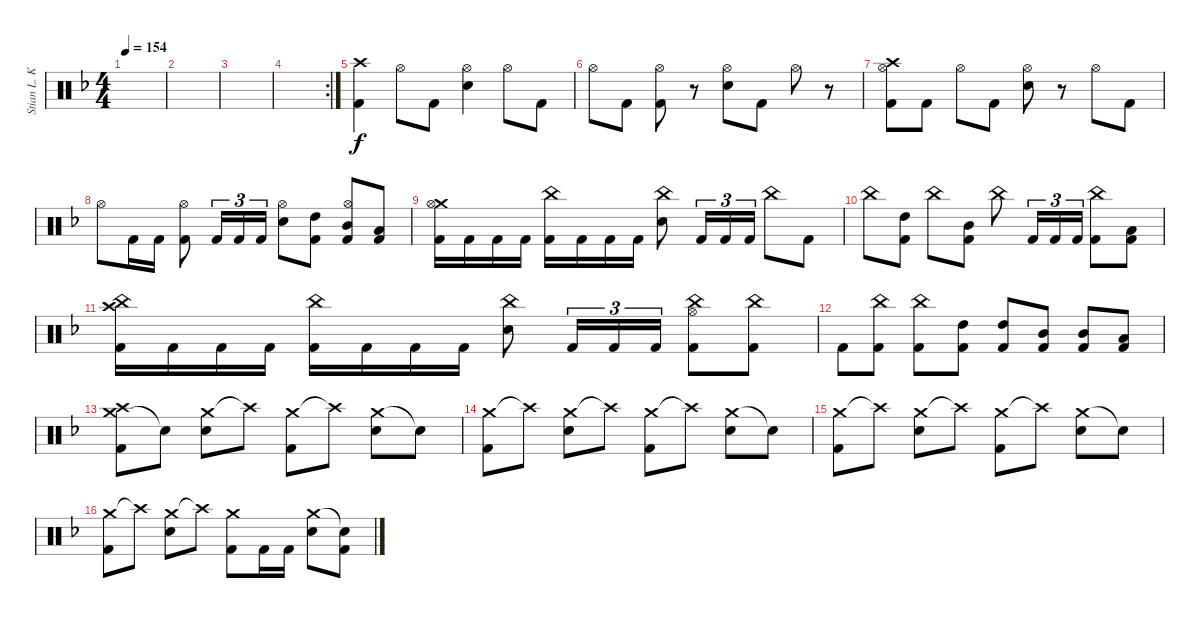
\track ("Stian L. Kristoffersen" "Stian L. K") {instrument percussion}
\staff {score}
\articulation defaults
\ts (4 4)
\tempo 154
\clef neutral
\ks f
|
|
|
\rc 2
|
("Crash high (hit)" "Kick (hit) 2").4 "Hi-Hat (open)".8 "Kick (hit) 2".8 ("Hi-Hat (open)" "Snare (hit) 2").4 "Hi-Hat (open)".8 "Kick (hit) 2".8 |
"Hi-Hat (open)".8 "Kick (hit) 2".8 ("Hi-Hat (open)" "Kick (hit) 2").8 r.8 ("Hi-Hat (open)" "Snare (hit) 2").8 "Kick (hit) 2".8 "Hi-Hat (open)".8 r.8 |
("Crash high (hit)" "Hi-Hat (open)" "Kick (hit) 2").8 "Kick (hit) 2".8 "Hi-Hat (open)".8 "Kick (hit) 2".8 ("Hi-Hat (open)" "Snare (hit) 2").8 r.8 "Hi-Hat (open)".8 "Kick (hit) 2".8 |
"Hi-Hat (open)".8 "Kick (hit) 2".16 "Kick (hit) 2".16 ("Hi-Hat (open)" "Kick (hit) 2").8 "Kick (hit) 2".16{tu (3 2)} "Kick (hit) 2".16{tu (3 2)} "Kick (hit) 2".16{tu (3 2)} ("Hi-Hat (open)" "Snare (hit) 2").8 ("High Tom (hit)" "Kick (hit) 2").8 ("Mid Tom (hit)" "Hi-Hat (open)" "Kick (hit) 2").8 ("Low Tom (hit)" "Kick (hit) 2").8 |
("Crash medium (hit)" "Hi-Hat (open)" "Kick (hit) 2").16 "Kick (hit) 2".16 "Kick (hit) 2".16 "Kick (hit) 2".16 ("China (hit)" "Kick (hit) 2").16 "Kick (hit) 2".16 "Kick (hit) 2".16 "Kick (hit) 2".16 ("China (hit)" "Snare (hit) 2").8 "Kick (hit) 2".16{tu (3 2)} "Kick (hit) 2".16{tu (3 2)} "Kick (hit) 2".16{tu (3 2)} "China (hit)".8 "Kick (hit) 2".8 |
"China (hit)".8 ("High Tom (hit)" "Kick (hit) 2").8 "China (hit)".8 ("Mid Tom (hit)" "Kick (hit) 2").8 "China (hit)".8 "Kick (hit) 2".16{tu (3 2)} "Kick (hit) 2".16{tu (3 2)} "Kick (hit) 2".16{tu (3 2)} ("China (hit)" "Kick (hit) 2").8 ("Low Tom (hit)" "Kick (hit) 2").8 |
("Crash high (hit)" "China (hit)" "Kick (hit) 2").16 "Kick (hit) 2".16 "Kick (hit) 2".16 "Kick (hit) 2".16 ("China (hit)" "Kick (hit) 2").16 "Kick (hit) 2".16 "Kick (hit) 2".16 "Kick (hit) 2".16 ("China (hit)" "Snare (hit) 2").8 "Kick (hit) 2".16{tu (3 2)} "Kick (hit) 2".16{tu (3 2)} "Kick (hit) 2".16{tu (3 2)} ("China (hit)" "Hi-Hat (open)" "Kick (hit) 2").8 ("China (hit)" "Kick (hit) 2").8 |
"Kick (hit) 2".8 ("China (hit)" "Kick (hit) 2").8 ("China (hit)" "Kick (hit) 2").8 ("High Tom (hit)" "Kick (hit) 2").8 ("High Tom (hit)" "Kick (hit) 2").8 ("Mid Tom (hit)" "Kick (hit) 2").8 ("Mid Tom (hit)" "Kick (hit) 2").8 ("Low Tom (hit)" "Kick (hit) 2").8 |
("Crash medium (hit)" "Crash high (hit)" "Kick (hit) 2").8 "Snare (hit)"{t}.8 ("Crash medium (hit)" "Snare (hit) 2").8 "Crash high (hit)"{t}.8 ("Crash medium (hit)" "Kick (hit) 2").8 "Crash high (hit)"{t}.8 ("Crash medium (hit)" "Snare (hit) 2").8 "Snare (hit)"{t}.8 |
("Crash medium (hit)" "Kick (hit) 2").8 "Crash high (hit)"{t}.8 ("Crash medium (hit)" "Snare (hit) 2").8 "Crash high (hit)"{t}.8 ("Crash medium (hit)" "Kick (hit) 2").8 "Crash high (hit)"{t}.8 ("Crash medium (hit)" "Snare (hit) 2").8 "Snare (hit)"{t}.8 |
("Crash medium (hit)" "Kick (hit) 2").8 "Crash high (hit)"{t}.8 ("Crash medium (hit)" "Snare (hit) 2").8 "Crash high (hit)"{t}.8 ("Crash medium (hit)" "Kick (hit) 2").8 "Crash high (hit)"{t}.8 ("Crash medium (hit)" "Snare (hit) 2").8 "Snare (hit)"{t}.8 |
("Crash medium (hit)" "Kick (hit) 2").8 "Crash high (hit)"{t}.8 ("Crash medium (hit)" "Snare (hit) 2").8 "Crash high (hit)"{t}.8 ("Crash medium (hit)" "Kick (hit) 2").8 "Kick (hit) 2".16 "Kick (hit) 2".16 ("Crash medium (hit)" "Snare (hit) 2").8 ("Snare (hit)"{t} "Kick (hit) 2").8
